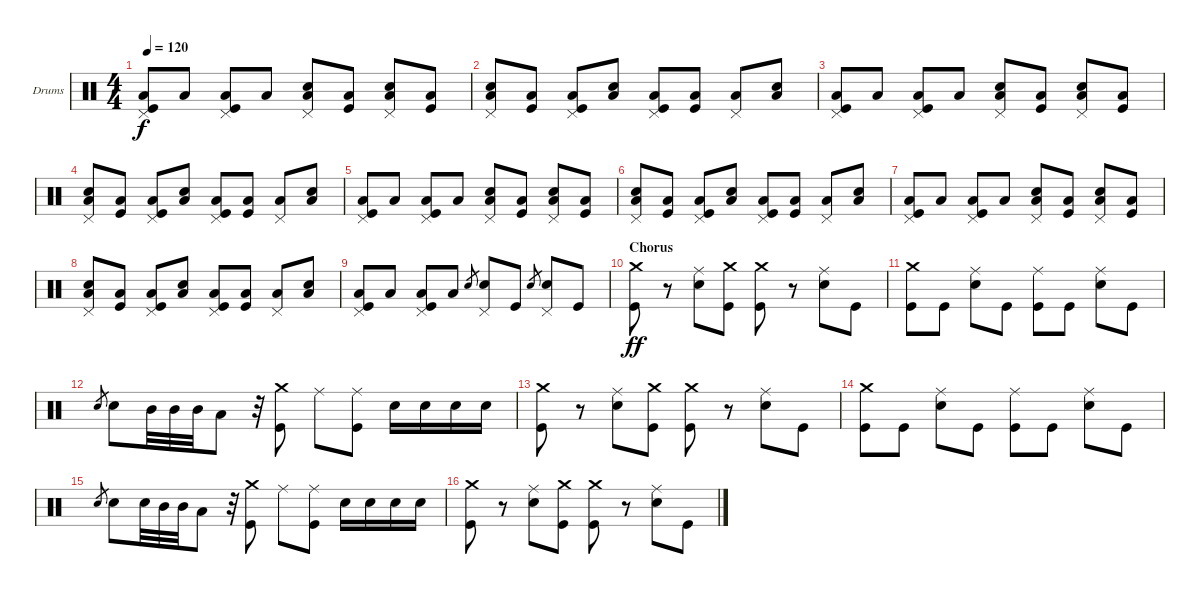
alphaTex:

\bracketExtendMode groupsimilarinstruments
\firstSystemTrackNameOrientation horizontal
\otherSystemsTrackNameOrientation horizontal
\track ("Drums" "Drums") {instrument percussion}
\staff {score}
\articulation defaults
\ts (4 4)
\tempo 120
\clef neutral
\ks c
("Low Tom (hit)" "Kick (hit)" "Pedal Hi-Hat (hit)").8{dy f} "Low Tom (hit)".8 ("Kick (hit)" "Low Tom (hit)" "Pedal Hi-Hat (hit)").8 "Low Tom (hit)".8 ("Low Tom (hit)" "Snare (hit) 2" "Pedal Hi-Hat (hit)").8 ("Low Tom (hit)" "Kick (hit)").8 ("Low Tom (hit)" "Snare (hit) 2" "Pedal Hi-Hat (hit)").8 ("Low Tom (hit)" "Kick (hit)").8 |
("Low Tom (hit)" "Snare (hit) 2" "Pedal Hi-Hat (hit)").8 ("Kick (hit)" "Low Tom (hit)").8 ("Kick (hit)" "Low Tom (hit)" "Pedal Hi-Hat (hit)").8 ("Low Tom (hit)" "Snare (hit) 2").8 ("Kick (hit)" "Low Tom (hit)" "Pedal Hi-Hat (hit)").8 ("Kick (hit)" "Low Tom (hit)").8 ("Low Tom (hit)" "Pedal Hi-Hat (hit)").8 ("Low Tom (hit)" "Snare (hit) 2").8 |
("Low Tom (hit)" "Kick (hit)" "Pedal Hi-Hat (hit)").8 "Low Tom (hit)".8 ("Kick (hit)" "Low Tom (hit)" "Pedal Hi-Hat (hit)").8 "Low Tom (hit)".8 ("Low Tom (hit)" "Snare (hit) 2" "Pedal Hi-Hat (hit)").8 ("Low Tom (hit)" "Kick (hit)").8 ("Low Tom (hit)" "Snare (hit) 2" "Pedal Hi-Hat (hit)").8 ("Low Tom (hit)" "Kick (hit)").8 |
("Low Tom (hit)" "Snare (hit) 2" "Pedal Hi-Hat (hit)").8 ("Kick (hit)" "Low Tom (hit)").8 ("Kick (hit)" "Low Tom (hit)" "Pedal Hi-Hat (hit)").8 ("Low Tom (hit)" "Snare (hit) 2").8 ("Kick (hit)" "Low Tom (hit)" "Pedal Hi-Hat (hit)").8 ("Kick (hit)" "Low Tom (hit)").8 ("Low Tom (hit)" "Pedal Hi-Hat (hit)").8 ("Low Tom (hit)" "Snare (hit) 2").8 |
("Low Tom (hit)" "Kick (hit)" "Pedal Hi-Hat (hit)").8 "Low Tom (hit)".8 ("Kick (hit)" "Low Tom (hit)" "Pedal Hi-Hat (hit)").8 "Low Tom (hit)".8 ("Low Tom (hit)" "Snare (hit) 2" "Pedal Hi-Hat (hit)").8 ("Low Tom (hit)" "Kick (hit)").8 ("Low Tom (hit)" "Snare (hit) 2" "Pedal Hi-Hat (hit)").8 ("Low Tom (hit)" "Kick (hit)").8 |
("Low Tom (hit)" "Snare (hit) 2" "Pedal Hi-Hat (hit)").8 ("Kick (hit)" "Low Tom (hit)").8 ("Kick (hit)" "Low Tom (hit)" "Pedal Hi-Hat (hit)").8 ("Low Tom (hit)" "Snare (hit) 2").8 ("Kick (hit)" "Low Tom (hit)" "Pedal Hi-Hat (hit)").8 ("Kick (hit)" "Low Tom (hit)").8 ("Low Tom (hit)" "Pedal Hi-Hat (hit)").8 ("Low Tom (hit)" "Snare (hit) 2").8 |
("Low Tom (hit)" "Kick (hit)" "Pedal Hi-Hat (hit)").8 "Low Tom (hit)".8 ("Kick (hit)" "Low Tom (hit)" "Pedal Hi-Hat (hit)").8 "Low Tom (hit)".8 ("Low Tom (hit)" "Snare (hit) 2" "Pedal Hi-Hat (hit)").8 ("Low Tom (hit)" "Kick (hit)").8 ("Low Tom (hit)" "Snare (hit) 2" "Pedal Hi-Hat (hit)").8 ("Low Tom (hit)" "Kick (hit)").8 |
("Low Tom (hit)" "Snare (hit) 2" "Pedal Hi-Hat (hit)").8 ("Kick (hit)" "Low Tom (hit)").8 ("Kick (hit)" "Low Tom (hit)" "Pedal Hi-Hat (hit)").8 ("Low Tom (hit)" "Snare (hit) 2").8 ("Kick (hit)" "Low Tom (hit)" "Pedal Hi-Hat (hit)").8 ("Kick (hit)" "Low Tom (hit)").8 ("Low Tom (hit)" "Pedal Hi-Hat (hit)").8 ("Low Tom (hit)" "Snare (hit) 2").8 |
("Low Tom (hit)" "Kick (hit)" "Pedal Hi-Hat (hit)").8 "Low Tom (hit)".8 ("Low Tom (hit)" "Kick (hit)" "Pedal Hi-Hat (hit)").8 "Low Tom (hit)".8 "Snare (hit) 2".8{gr} ("Snare (hit) 2" "Pedal Hi-Hat (hit)").8 "Kick (hit)".8 "Snare (hit) 2".8{gr} ("Snare (hit) 2" "Pedal Hi-Hat (hit)").8 "Kick (hit)".8 |
\section ("" "Chorus")
("Crash medium (hit)" "Kick (hit)").8{dy ff} r.8 ("Ride (middle)" "Snare (hit) 2").8 ("Crash medium (hit)" "Kick (hit)").8 ("Crash medium (hit)" "Kick (hit)").8 r.8 ("Ride (middle)" "Snare (hit) 2").8 "Kick (hit)".8 |
("Crash medium (hit)" "Kick (hit)").8 "Kick (hit)".8 ("Ride (middle)" "Snare (hit) 2").8 "Kick (hit)".8 ("Ride (middle)" "Kick (hit)").8 "Kick (hit)".8 ("Ride (middle)" "Snare (hit) 2").8 "Kick (hit)".8 |
"Snare (hit) 2".8{gr} "Snare (hit) 2".8 "Mid Tom (hit)".32 "Mid Tom (hit)".32 "Mid Tom (hit)".32 "Low Tom (hit)".8 r.32 ("Kick (hit)" "Crash medium (hit)").8 "Ride (middle)".8 ("Ride (middle)" "Kick (hit)").8 "Snare (hit) 2".16 "Snare (hit) 2".16 "Snare (hit) 2".16 "Snare (hit) 2".16 |
("Crash medium (hit)" "Kick (hit)").8 r.8 ("Ride (middle)" "Snare (hit) 2").8 ("Crash medium (hit)" "Kick (hit)").8 ("Crash medium (hit)" "Kick (hit)").8 r.8 ("Ride (middle)" "Snare (hit) 2").8 "Kick (hit)".8 |
("Crash medium (hit)" "Kick (hit)").8 "Kick (hit)".8 ("Ride (middle)" "Snare (hit) 2").8 "Kick (hit)".8 ("Ride (middle)" "Kick (hit)").8 "Kick (hit)".8 ("Ride (middle)" "Snare (hit) 2").8 "Kick (hit)".8 |
"Snare (hit) 2".8{gr} "Snare (hit) 2".8 "Snare (hit) 2".32 "Mid Tom (hit)".32 "Mid Tom (hit)".32 "Low Tom (hit)".8 r.32 ("Kick (hit)" "Crash medium (hit)").8 "Ride (middle)".8 ("Ride (middle)" "Kick (hit)").8 "Snare (hit) 2".16 "Snare (hit) 2".16 "Snare (hit) 2".16 "Snare (hit) 2".16 |
("Crash medium (hit)" "Kick (hit)").8 r.8 ("Ride (middle)" "Snare (hit) 2").8 ("Crash medium (hit)" "Kick (hit)").8 ("Crash medium (hit)" "Kick (hit)").8 r.8 ("Ride (middle)" "Snare (hit) 2").8 "Kick (hit)".8
